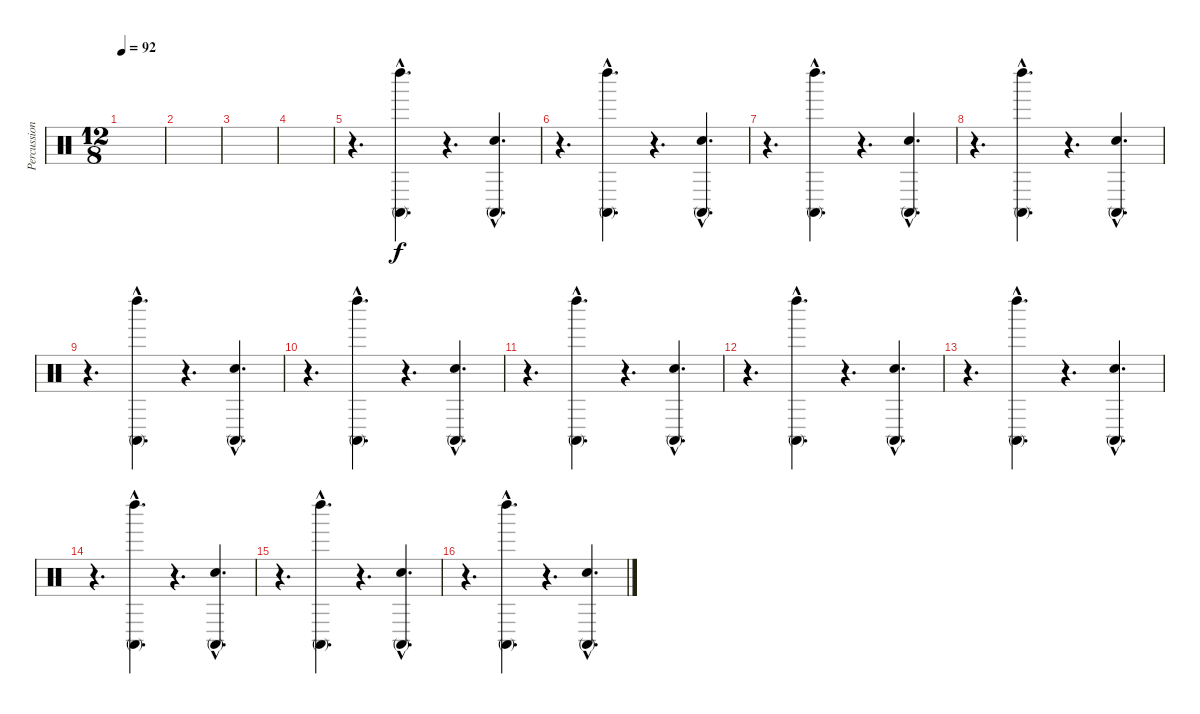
\track ("Percussion" "Percussion") {instrument percussion}
\staff {score}
\articulation defaults
\ts (12 8)
\tempo 92
\clef neutral
\ks c
|
|
|
|
r.4{d} ("Conga high (mute)"{hac} "Left Maraca (hit)"{hac}).4{d} r.4{d} ("Conga high (mute)"{hac} "Hand Clap (hit)"{hac}).4{d} |
r.4{d} ("Conga high (mute)"{hac} "Left Maraca (hit)"{hac}).4{d} r.4{d} ("Conga high (mute)"{hac} "Hand Clap (hit)"{hac}).4{d} |
r.4{d} ("Conga high (mute)"{hac} "Left Maraca (hit)"{hac}).4{d} r.4{d} ("Conga high (mute)"{hac} "Hand Clap (hit)"{hac}).4{d} |
r.4{d} ("Conga high (mute)"{hac} "Left Maraca (hit)"{hac}).4{d} r.4{d} ("Conga high (mute)"{hac} "Hand Clap (hit)"{hac}).4{d} |
r.4{d} ("Conga high (mute)"{hac} "Left Maraca (hit)"{hac}).4{d} r.4{d} ("Conga high (mute)"{hac} "Hand Clap (hit)"{hac}).4{d} |
r.4{d} ("Conga high (mute)"{hac} "Left Maraca (hit)"{hac}).4{d} r.4{d} ("Conga high (mute)"{hac} "Hand Clap (hit)"{hac}).4{d} |
r.4{d} ("Conga high (mute)"{hac} "Left Maraca (hit)"{hac}).4{d} r.4{d} ("Conga high (mute)"{hac} "Hand Clap (hit)"{hac}).4{d} |
r.4{d} ("Conga high (mute)"{hac} "Left Maraca (hit)"{hac}).4{d} r.4{d} ("Conga high (mute)"{hac} "Hand Clap (hit)"{hac}).4{d} |
r.4{d} ("Conga high (mute)"{hac} "Left Maraca (hit)"{hac}).4{d} r.4{d} ("Conga high (mute)"{hac} "Hand Clap (hit)"{hac}).4{d} |
r.4{d} ("Conga high (mute)"{hac} "Left Maraca (hit)"{hac}).4{d} r.4{d} ("Conga high (mute)"{hac} "Hand Clap (hit)"{hac}).4{d} |
r.4{d} ("Conga high (mute)"{hac} "Left Maraca (hit)"{hac}).4{d} r.4{d} ("Conga high (mute)"{hac} "Hand Clap (hit)"{hac}).4{d} |
r.4{d} ("Conga high (mute)"{hac} "Left Maraca (hit)"{hac}).4{d} r.4{d} ("Conga high (mute)"{hac} "Hand Clap (hit)"{hac}).4{d}
